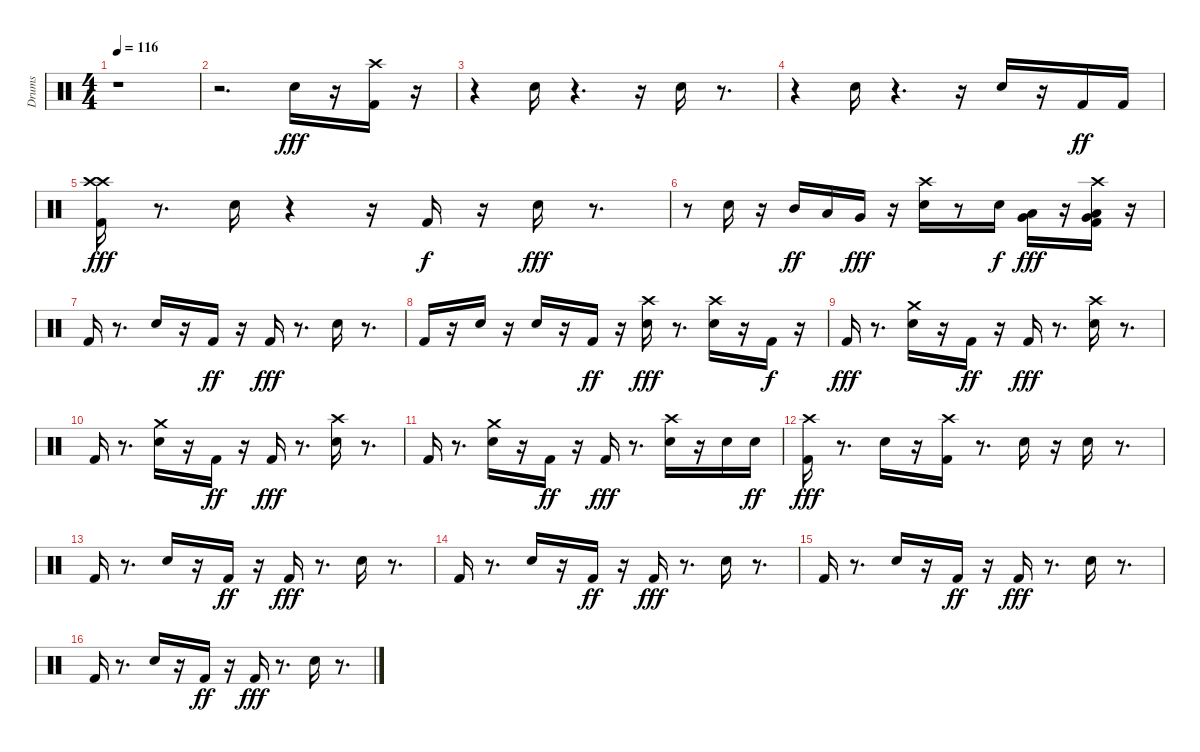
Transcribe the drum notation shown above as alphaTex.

\track ("Drums" "Drums") {instrument percussion}
\staff {score}
\articulation defaults
\ts (4 4)
\tempo 116
\clef neutral
\ks c
r.1{dy fff} |
r.2{d} "Snare (hit) 2".16 r.16 ("Crash high (hit)" "Kick (hit) 2").16 r.16 |
r.4 "Snare (hit) 2".16 r.4{d} r.16 "Snare (hit) 2".16 r.8{d} |
r.4 "Snare (hit) 2".16 r.4{d} r.16 "Snare (hit) 2".16 r.16 "Kick (hit) 2".16{dy ff} "Kick (hit) 2".16 |
("Crash high (hit)" "Crash high (hit)" "Kick (hit) 2").16{dy fff} r.8{d} "Snare (hit) 2".16 r.4 r.16 "Kick (hit) 2".16{dy f} r.16 "Snare (hit) 2".16{dy fff} r.8{d} |
r.8 "Snare (hit) 2".16 r.16 "Mid Tom (hit)".16{dy ff} "Low Tom (hit)".16 "Very Low Tom (hit)".16{dy fff} r.16 ("Crash high (hit)" "Snare (hit) 2").16 r.8 "Snare (hit) 2".16{dy f} ("Very Low Tom (hit)" "Low Tom (hit)").16{dy fff} r.16 ("Crash high (hit)" "Very Low Tom (hit)" "Low Tom (hit)" "Kick (hit) 2").16 r.16 |
"Kick (hit) 2".16 r.8{d} "Snare (hit) 2".16 r.16 "Kick (hit) 2".16{dy ff} r.16 "Kick (hit) 2".16{dy fff} r.8{d} "Snare (hit) 2".16 r.8{d} |
"Kick (hit) 2".16 r.16 "Snare (hit) 2".16 r.16 "Snare (hit) 2".16 r.16 "Kick (hit) 2".16{dy ff} r.16 ("Crash high (hit)" "Snare (hit) 2").16{dy fff} r.8{d} ("Crash high (hit)" "Snare (hit) 2").16 r.16 "Kick (hit) 2".16{dy f} r.16 |
"Kick (hit) 2".16{dy fff} r.8{d} ("Crash medium (hit)" "Snare (hit) 2").16 r.16 "Kick (hit) 2".16{dy ff} r.16 "Kick (hit) 2".16{dy fff} r.8{d} ("Crash high (hit)" "Snare (hit) 2").16 r.8{d} |
"Kick (hit) 2".16 r.8{d} ("Crash medium (hit)" "Snare (hit) 2").16 r.16 "Kick (hit) 2".16{dy ff} r.16 "Kick (hit) 2".16{dy fff} r.8{d} ("Crash high (hit)" "Snare (hit) 2").16 r.8{d} |
"Kick (hit) 2".16 r.8{d} ("Crash medium (hit)" "Snare (hit) 2").16 r.16 "Kick (hit) 2".16{dy ff} r.16 "Kick (hit) 2".16{dy fff} r.8{d} ("Crash high (hit)" "Snare (hit) 2").16 r.16 "Snare (hit) 2".16 "Snare (hit) 2".16{dy ff} |
("Crash high (hit)" "Kick (hit) 2").16{dy fff} r.8{d} "Snare (hit) 2".16 r.16 ("Crash high (hit)" "Kick (hit) 2").16 r.8{d} "Snare (hit) 2".16 r.16 "Snare (hit) 2".16 r.8{d} |
"Kick (hit) 2".16 r.8{d} "Snare (hit) 2".16 r.16 "Kick (hit) 2".16{dy ff} r.16 "Kick (hit) 2".16{dy fff} r.8{d} "Snare (hit) 2".16 r.8{d} |
"Kick (hit) 2".16 r.8{d} "Snare (hit) 2".16 r.16 "Kick (hit) 2".16{dy ff} r.16 "Kick (hit) 2".16{dy fff} r.8{d} "Snare (hit) 2".16 r.8{d} |
"Kick (hit) 2".16 r.8{d} "Snare (hit) 2".16 r.16 "Kick (hit) 2".16{dy ff} r.16 "Kick (hit) 2".16{dy fff} r.8{d} "Snare (hit) 2".16 r.8{d} |
"Kick (hit) 2".16 r.8{d} "Snare (hit) 2".16 r.16 "Kick (hit) 2".16{dy ff} r.16 "Kick (hit) 2".16{dy fff} r.8{d} "Snare (hit) 2".16 r.8{d}
